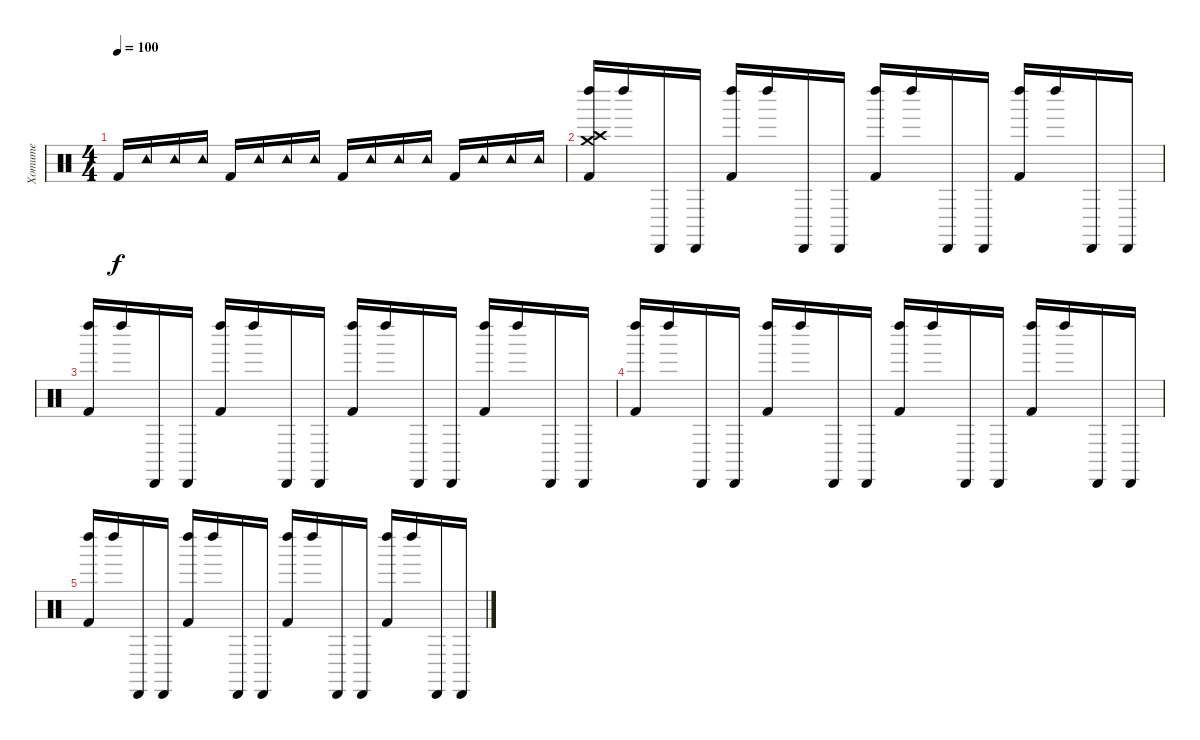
\track ("Хотите" "Хотите") {instrument percussion}
\staff {score}
\articulation defaults
\ts (4 4)
\tempo 100
\clef neutral
\ks c "Kick (hit) 2".16{dy f} "Tambourine (hit)".16 "Tambourine (hit)".16 "Tambourine (hit)".16 "Kick (hit) 2".16 "Tambourine (hit)".16 "Tambourine (hit)".16 "Tambourine (hit)".16 "Kick (hit) 2".16 "Tambourine (hit)".16 "Tambourine (hit)".16 "Tambourine (hit)".16 "Kick (hit) 2".16 "Tambourine (hit)".16 "Tambourine (hit)".16 "Tambourine (hit)".16
|
("Kick (hit) 2" "Left Maraca (hit)" "Crash high (hit)" "Crash medium (hit)").16 "Left Maraca (hit)".16 "Cabasa (hit)".16 "Cabasa (hit)".16 ("Kick (hit) 2" "Left Maraca (hit)").16 "Left Maraca (hit)".16 "Cabasa (hit)".16 "Cabasa (hit)".16 ("Kick (hit) 2" "Left Maraca (hit)").16 "Left Maraca (hit)".16 "Cabasa (hit)".16 "Cabasa (hit)".16 ("Kick (hit) 2" "Left Maraca (hit)").16 "Left Maraca (hit)".16 "Cabasa (hit)".16 "Cabasa (hit)".16 |
("Kick (hit) 2" "Left Maraca (hit)").16 "Left Maraca (hit)".16 "Cabasa (hit)".16 "Cabasa (hit)".16 ("Kick (hit) 2" "Left Maraca (hit)").16 "Left Maraca (hit)".16 "Cabasa (hit)".16 "Cabasa (hit)".16 ("Kick (hit) 2" "Left Maraca (hit)").16 "Left Maraca (hit)".16 "Cabasa (hit)".16 "Cabasa (hit)".16 ("Kick (hit) 2" "Left Maraca (hit)").16 "Left Maraca (hit)".16 "Cabasa (hit)".16 "Cabasa (hit)".16 |
("Kick (hit) 2" "Left Maraca (hit)").16 "Left Maraca (hit)".16 "Cabasa (hit)".16 "Cabasa (hit)".16 ("Kick (hit) 2" "Left Maraca (hit)").16 "Left Maraca (hit)".16 "Cabasa (hit)".16 "Cabasa (hit)".16 ("Kick (hit) 2" "Left Maraca (hit)").16 "Left Maraca (hit)".16 "Cabasa (hit)".16 "Cabasa (hit)".16 ("Kick (hit) 2" "Left Maraca (hit)").16 "Left Maraca (hit)".16 "Cabasa (hit)".16 "Cabasa (hit)".16 |
("Kick (hit) 2" "Left Maraca (hit)").16 "Left Maraca (hit)".16 "Cabasa (hit)".16 "Cabasa (hit)".16 ("Kick (hit) 2" "Left Maraca (hit)").16 "Left Maraca (hit)".16 "Cabasa (hit)".16 "Cabasa (hit)".16 ("Kick (hit) 2" "Left Maraca (hit)").16 "Left Maraca (hit)".16 "Cabasa (hit)".16 "Cabasa (hit)".16 ("Kick (hit) 2" "Left Maraca (hit)").16 "Left Maraca (hit)".16 "Cabasa (hit)".16 "Cabasa (hit)".16
